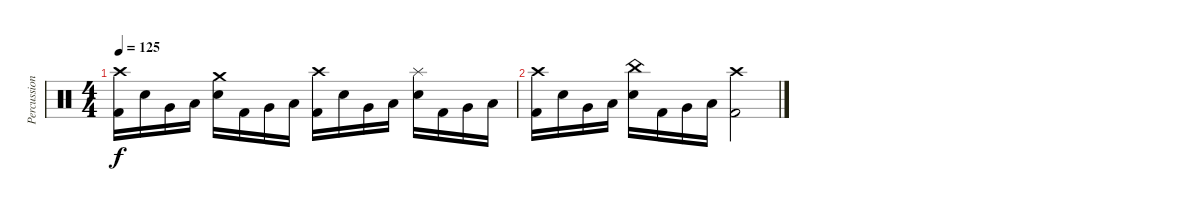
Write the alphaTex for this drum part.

\track ("Percussion" "Percussion") {instrument percussion}
\staff {score}
\articulation defaults
\ts (4 4)
\tempo 125
\clef neutral
\ks c
("Crash high (hit)" "Kick (hit) 2").16{dy f} "Electric Snare (hit)".16 "Very Low Tom (hit)".16 "Low Floor Tom (hit)".16 ("Crash medium (hit)" "Electric Snare (hit)").16 "Kick (hit) 2".16 "Very Low Tom (hit)".16 "Low Floor Tom (hit)".16 ("Crash high (hit)" "Kick (hit) 2").16 "Electric Snare (hit)".16 "Very Low Tom (hit)".16 "Low Floor Tom (hit)".16 ("Splash (hit)" "Electric Snare (hit)").16 "Kick (hit) 2".16 "Very Low Tom (hit)".16 "Low Floor Tom (hit)".16 |
("Crash high (hit)" "Kick (hit) 2").16 "Electric Snare (hit)".16 "Very Low Tom (hit)".16 "Low Floor Tom (hit)".16 ("China (hit)" "Electric Snare (hit)").16 "Kick (hit) 2".16 "Very Low Tom (hit)".16 "Low Floor Tom (hit)".16 ("Crash high (hit)" "Kick (hit) 2").2
